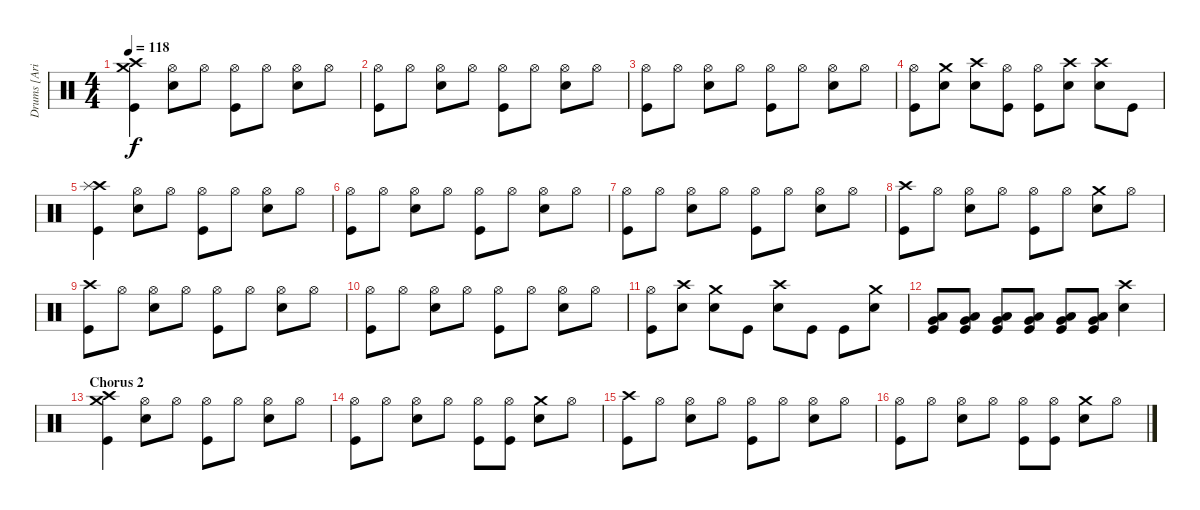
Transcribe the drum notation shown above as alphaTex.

\track ("Drums [Arin Ilejay]" "Drums [Ari") {instrument percussion}
\staff {score}
\articulation defaults
\ts (4 4)
\tempo 118
\clef neutral
\ks c
("Crash high (hit)" "Crash medium (hit)" "Kick (hit)").4{dy f} ("Hi-Hat (open)" "Snare (hit) 2").8 "Hi-Hat (open)".8 ("Hi-Hat (open)" "Kick (hit)").8 "Hi-Hat (open)".8 ("Hi-Hat (open)" "Snare (hit) 2").8 "Hi-Hat (open)".8 |
("Hi-Hat (open)" "Kick (hit)").8 "Hi-Hat (open)".8 ("Hi-Hat (open)" "Snare (hit) 2").8 "Hi-Hat (open)".8 ("Hi-Hat (open)" "Kick (hit)").8 "Hi-Hat (open)".8 ("Hi-Hat (open)" "Snare (hit) 2").8 "Hi-Hat (open)".8 |
("Hi-Hat (open)" "Kick (hit)").8 "Hi-Hat (open)".8 ("Hi-Hat (open)" "Snare (hit) 2").8 "Hi-Hat (open)".8 ("Hi-Hat (open)" "Kick (hit)").8 "Hi-Hat (open)".8 ("Hi-Hat (open)" "Snare (hit) 2").8 "Hi-Hat (open)".8 |
("Hi-Hat (open)" "Kick (hit)").8 ("Crash medium (hit)" "Snare (hit) 2").8 ("Crash high (hit)" "Snare (hit) 2").8 ("Hi-Hat (open)" "Kick (hit)").8 ("Hi-Hat (open)" "Kick (hit)").8 ("Crash high (hit)" "Snare (hit) 2").8 ("Crash high (hit)" "Snare (hit) 2").8 "Kick (hit)".8 |
("Crash high (hit)" "Splash (hit)" "Kick (hit)").4 ("Hi-Hat (open)" "Snare (hit) 2").8 "Hi-Hat (open)".8 ("Hi-Hat (open)" "Kick (hit)").8 "Hi-Hat (open)".8 ("Hi-Hat (open)" "Snare (hit) 2").8 "Hi-Hat (open)".8 |
("Hi-Hat (open)" "Kick (hit)").8 "Hi-Hat (open)".8 ("Hi-Hat (open)" "Snare (hit) 2").8 "Hi-Hat (open)".8 ("Hi-Hat (open)" "Kick (hit)").8 "Hi-Hat (open)".8 ("Hi-Hat (open)" "Snare (hit) 2").8 "Hi-Hat (open)".8 |
("Hi-Hat (open)" "Kick (hit)").8 "Hi-Hat (open)".8 ("Hi-Hat (open)" "Snare (hit) 2").8 "Hi-Hat (open)".8 ("Hi-Hat (open)" "Kick (hit)").8 "Hi-Hat (open)".8 ("Hi-Hat (open)" "Snare (hit) 2").8 "Hi-Hat (open)".8 |
("Crash high (hit)" "Kick (hit)").8 "Hi-Hat (open)".8 ("Hi-Hat (open)" "Snare (hit) 2").8 "Hi-Hat (open)".8 ("Hi-Hat (open)" "Kick (hit)").8 "Hi-Hat (open)".8 ("Crash medium (hit)" "Snare (hit) 2").8 "Hi-Hat (open)".8 |
("Crash high (hit)" "Kick (hit)").8 "Hi-Hat (open)".8 ("Hi-Hat (open)" "Snare (hit) 2").8 "Hi-Hat (open)".8 ("Hi-Hat (open)" "Kick (hit)").8 "Hi-Hat (open)".8 ("Hi-Hat (open)" "Snare (hit) 2").8 "Hi-Hat (open)".8 |
("Hi-Hat (open)" "Kick (hit)").8 "Hi-Hat (open)".8 ("Hi-Hat (open)" "Snare (hit) 2").8 "Hi-Hat (open)".8 ("Hi-Hat (open)" "Kick (hit)").8 "Hi-Hat (open)".8 ("Hi-Hat (open)" "Snare (hit) 2").8 "Hi-Hat (open)".8 |
("Hi-Hat (open)" "Kick (hit)").8 ("Crash high (hit)" "Snare (hit) 2").8 ("Crash medium (hit)" "Snare (hit) 2").8 "Kick (hit)".8 ("Crash high (hit)" "Snare (hit) 2").8 "Kick (hit)".8 "Kick (hit)".8 ("Crash medium (hit)" "Snare (hit) 2").8 |
("Low Tom (hit)" "Very Low Tom (hit)" "Kick (hit)").8 ("Low Tom (hit)" "Very Low Tom (hit)" "Kick (hit)").8 ("Low Tom (hit)" "Very Low Tom (hit)" "Kick (hit)").8 ("Low Tom (hit)" "Very Low Tom (hit)" "Kick (hit)").8 ("Low Tom (hit)" "Very Low Tom (hit)" "Kick (hit)").8 ("Low Tom (hit)" "Very Low Tom (hit)" "Kick (hit)").8 ("Crash high (hit)" "Snare (hit) 2").4 |
\section ("" "Chorus 2")
("Crash high (hit)" "Crash medium (hit)" "Kick (hit)").4 ("Hi-Hat (open)" "Snare (hit) 2").8 "Hi-Hat (open)".8 ("Hi-Hat (open)" "Kick (hit)").8 "Hi-Hat (open)".8 ("Hi-Hat (open)" "Snare (hit) 2").8 "Hi-Hat (open)".8 |
("Hi-Hat (open)" "Kick (hit)").8 "Hi-Hat (open)".8 ("Hi-Hat (open)" "Snare (hit) 2").8 "Hi-Hat (open)".8 ("Hi-Hat (open)" "Kick (hit)").8 ("Hi-Hat (open)" "Kick (hit)").8 ("Crash medium (hit)" "Snare (hit) 2").8 "Hi-Hat (open)".8 |
("Crash high (hit)" "Kick (hit)").8 "Hi-Hat (open)".8 ("Hi-Hat (open)" "Snare (hit) 2").8 "Hi-Hat (open)".8 ("Hi-Hat (open)" "Kick (hit)").8 "Hi-Hat (open)".8 ("Hi-Hat (open)" "Snare (hit) 2").8 "Hi-Hat (open)".8 |
("Hi-Hat (open)" "Kick (hit)").8 "Hi-Hat (open)".8 ("Hi-Hat (open)" "Snare (hit) 2").8 "Hi-Hat (open)".8 ("Hi-Hat (open)" "Kick (hit)").8 ("Hi-Hat (open)" "Kick (hit)").8 ("Crash medium (hit)" "Snare (hit) 2").8 "Hi-Hat (open)".8
